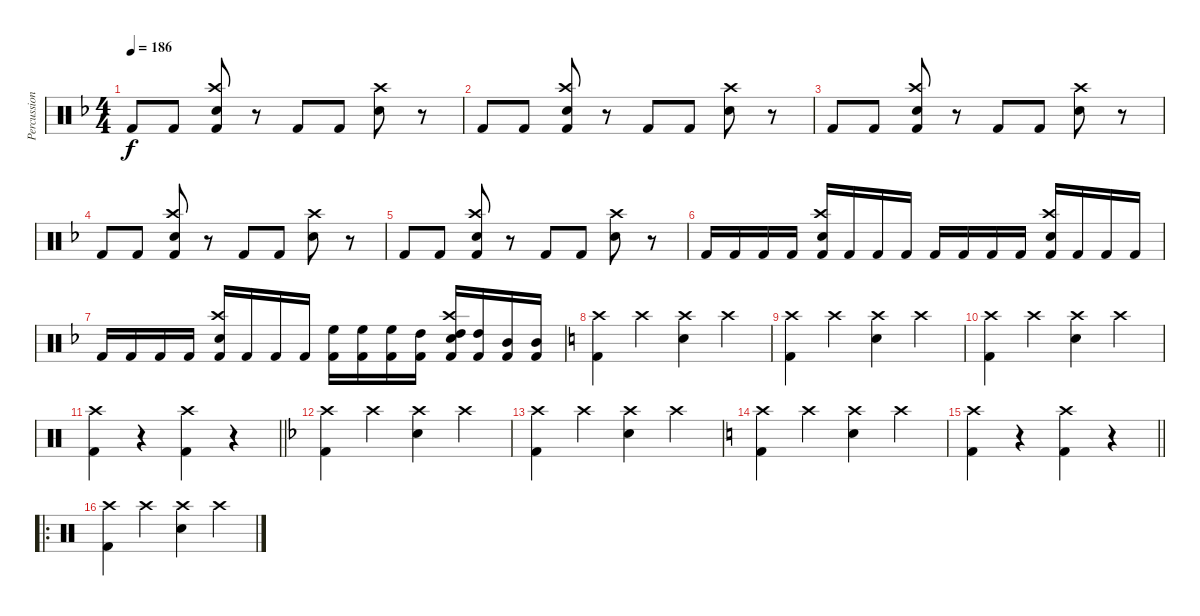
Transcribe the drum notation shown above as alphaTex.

\track ("Percussion" "Percussion") {instrument percussion}
\staff {score}
\articulation defaults
\ts (4 4)
\tempo 186
\clef neutral
\ks f "Kick (hit) 2".8{dy f} "Kick (hit) 2".8
("Crash high (hit)" "Snare (hit) 2" "Kick (hit) 2").8 r.8 "Kick (hit) 2".8 "Kick (hit) 2".8 ("Crash high (hit)" "Snare (hit) 2").8 r.8 |
"Kick (hit) 2".8 "Kick (hit) 2".8 ("Crash high (hit)" "Snare (hit) 2" "Kick (hit) 2").8 r.8 "Kick (hit) 2".8 "Kick (hit) 2".8 ("Crash high (hit)" "Snare (hit) 2").8 r.8 |
"Kick (hit) 2".8 "Kick (hit) 2".8 ("Crash high (hit)" "Snare (hit) 2" "Kick (hit) 2").8 r.8 "Kick (hit) 2".8 "Kick (hit) 2".8 ("Crash high (hit)" "Snare (hit) 2").8 r.8 |
"Kick (hit) 2".8 "Kick (hit) 2".8 ("Crash high (hit)" "Snare (hit) 2" "Kick (hit) 2").8 r.8 "Kick (hit) 2".8 "Kick (hit) 2".8 ("Crash high (hit)" "Snare (hit) 2").8 r.8 |
"Kick (hit) 2".8 "Kick (hit) 2".8 ("Crash high (hit)" "Snare (hit) 2" "Kick (hit) 2").8 r.8 "Kick (hit) 2".8 "Kick (hit) 2".8 ("Crash high (hit)" "Snare (hit) 2").8 r.8 |
"Kick (hit) 2".16 "Kick (hit) 2".16 "Kick (hit) 2".16 "Kick (hit) 2".16 ("Crash high (hit)" "Snare (hit) 2" "Kick (hit) 2").16 "Kick (hit) 2".16 "Kick (hit) 2".16 "Kick (hit) 2".16 "Kick (hit) 2".16 "Kick (hit) 2".16 "Kick (hit) 2".16 "Kick (hit) 2".16 ("Crash high (hit)" "Snare (hit) 2" "Kick (hit) 2").16 "Kick (hit) 2".16 "Kick (hit) 2".16 "Kick (hit) 2".16 |
"Kick (hit) 2".16 "Kick (hit) 2".16 "Kick (hit) 2".16 "Kick (hit) 2".16 ("Crash high (hit)" "Snare (hit) 2" "Kick (hit) 2").16 "Kick (hit) 2".16 "Kick (hit) 2".16 "Kick (hit) 2".16 ("High Floor Tom (hit)" "Kick (hit) 2").16 ("High Floor Tom (hit)" "Kick (hit) 2").16 ("High Floor Tom (hit)" "Kick (hit) 2").16 ("High Tom (hit)" "Kick (hit) 2").16 ("Crash high (hit)" "High Tom (hit)" "Snare (hit) 2" "Kick (hit) 2").16 ("High Tom (hit)" "Kick (hit) 2").16 ("Mid Tom (hit)" "Kick (hit) 2").16 ("Mid Tom (hit)" "Kick (hit) 2").16 |
\ks c
("Crash high (hit)" "Kick (hit) 2").4 "Crash high (hit)".4 ("Crash high (hit)" "Snare (hit) 2").4 "Crash high (hit)".4 |
("Crash high (hit)" "Kick (hit) 2").4 "Crash high (hit)".4 ("Crash high (hit)" "Snare (hit) 2").4 "Crash high (hit)".4 |
("Crash high (hit)" "Kick (hit) 2").4 "Crash high (hit)".4 ("Crash high (hit)" "Snare (hit) 2").4 "Crash high (hit)".4 |
\barLineRight lightlight
("Crash high (hit)" "Kick (hit) 2").4 r.4 ("Crash high (hit)" "Kick (hit) 2").4 r.4 |
\ks f
("Crash high (hit)" "Kick (hit) 2").4 "Crash high (hit)".4 ("Crash high (hit)" "Snare (hit) 2").4 "Crash high (hit)".4 |
("Crash high (hit)" "Kick (hit) 2").4 "Crash high (hit)".4 ("Crash high (hit)" "Snare (hit) 2").4 "Crash high (hit)".4 |
\ks c
("Crash high (hit)" "Kick (hit) 2").4 "Crash high (hit)".4 ("Crash high (hit)" "Snare (hit) 2").4 "Crash high (hit)".4 |
\barLineRight lightlight
("Crash high (hit)" "Kick (hit) 2").4 r.4 ("Crash high (hit)" "Kick (hit) 2").4 r.4 |
\ro
("Crash high (hit)" "Kick (hit) 2").4 "Crash high (hit)".4 ("Crash high (hit)" "Snare (hit) 2").4 "Crash high (hit)".4
